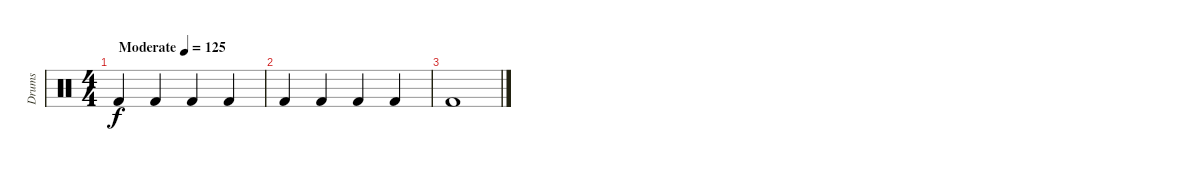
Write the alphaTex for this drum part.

\track ("Drums" "Drums") {instrument percussion}
\staff {score}
\articulation defaults
\ts (4 4)
\tempo (125 "Moderate")
\clef neutral
\ks c "Kick (hit) 2".4{dy f} "Kick (hit) 2".4 "Kick (hit) 2".4 "Kick (hit) 2".4
|
"Kick (hit) 2".4 "Kick (hit) 2".4 "Kick (hit) 2".4 "Kick (hit) 2".4 |
"Kick (hit) 2".1
